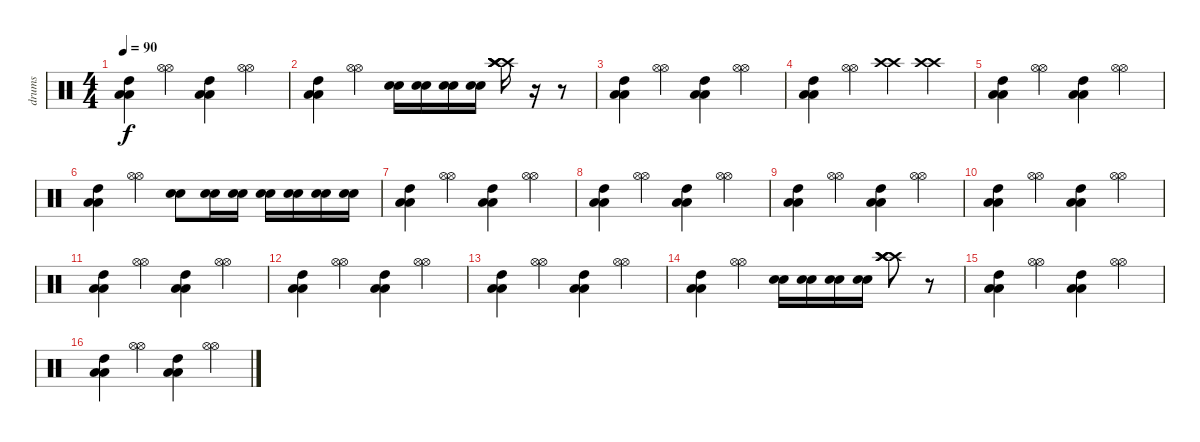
\track ("drums" "drums") {instrument percussion}
\staff {score}
\articulation defaults
\ts (4 4)
\tempo 90
\clef neutral
\ks c
("High Tom (hit)" "Low Floor Tom (hit)" "Low Floor Tom (hit)").4{dy f} ("Hi-Hat (open)" "Hi-Hat (open)").4 ("High Tom (hit)" "Low Floor Tom (hit)" "Low Floor Tom (hit)").4 ("Hi-Hat (open)" "Hi-Hat (open)").4 |
("High Tom (hit)" "Low Floor Tom (hit)" "Low Floor Tom (hit)").4 ("Hi-Hat (open)" "Hi-Hat (open)").4 ("Electric Snare (hit)" "Electric Snare (hit)").16 ("Electric Snare (hit)" "Electric Snare (hit)").16 ("Electric Snare (hit)" "Electric Snare (hit)").16 ("Electric Snare (hit)" "Electric Snare (hit)").16 ("Crash high (hit)" "Crash high (hit)" "Crash high (hit)" "Crash high (hit)").16 r.16 r.8 |
("High Tom (hit)" "Low Floor Tom (hit)" "Low Floor Tom (hit)").4 ("Hi-Hat (open)" "Hi-Hat (open)").4 ("High Tom (hit)" "Low Floor Tom (hit)" "Low Floor Tom (hit)").4 ("Hi-Hat (open)" "Hi-Hat (open)").4 |
("High Tom (hit)" "Low Floor Tom (hit)" "Low Floor Tom (hit)").4 ("Hi-Hat (open)" "Hi-Hat (open)").4 ("Crash high (hit)" "Crash high (hit)").4 ("Crash high (hit)" "Crash high (hit)").4 |
("High Tom (hit)" "Low Floor Tom (hit)" "Low Floor Tom (hit)").4 ("Hi-Hat (open)" "Hi-Hat (open)").4 ("High Tom (hit)" "Low Floor Tom (hit)" "Low Floor Tom (hit)").4 ("Hi-Hat (open)" "Hi-Hat (open)").4 |
("High Tom (hit)" "Low Floor Tom (hit)" "Low Floor Tom (hit)").4 ("Hi-Hat (open)" "Hi-Hat (open)").4 ("Electric Snare (hit)" "Electric Snare (hit)").8 ("Electric Snare (hit)" "Electric Snare (hit)").16 ("Electric Snare (hit)" "Electric Snare (hit)").16 ("Electric Snare (hit)" "Electric Snare (hit)").16 ("Electric Snare (hit)" "Electric Snare (hit)").16 ("Electric Snare (hit)" "Electric Snare (hit)").16 ("Electric Snare (hit)" "Electric Snare (hit)").16 |
("High Tom (hit)" "Low Floor Tom (hit)" "Low Floor Tom (hit)").4 ("Hi-Hat (open)" "Hi-Hat (open)").4 ("High Tom (hit)" "Low Floor Tom (hit)" "Low Floor Tom (hit)").4 ("Hi-Hat (open)" "Hi-Hat (open)").4 |
("High Tom (hit)" "Low Floor Tom (hit)" "Low Floor Tom (hit)").4 ("Hi-Hat (open)" "Hi-Hat (open)").4 ("High Tom (hit)" "Low Floor Tom (hit)" "Low Floor Tom (hit)").4 ("Hi-Hat (open)" "Hi-Hat (open)").4 |
("High Tom (hit)" "Low Floor Tom (hit)" "Low Floor Tom (hit)").4 ("Hi-Hat (open)" "Hi-Hat (open)").4 ("High Tom (hit)" "Low Floor Tom (hit)" "Low Floor Tom (hit)").4 ("Hi-Hat (open)" "Hi-Hat (open)").4 |
("High Tom (hit)" "Low Floor Tom (hit)" "Low Floor Tom (hit)").4 ("Hi-Hat (open)" "Hi-Hat (open)").4 ("High Tom (hit)" "Low Floor Tom (hit)" "Low Floor Tom (hit)").4 ("Hi-Hat (open)" "Hi-Hat (open)").4 |
("High Tom (hit)" "Low Floor Tom (hit)" "Low Floor Tom (hit)").4 ("Hi-Hat (open)" "Hi-Hat (open)").4 ("High Tom (hit)" "Low Floor Tom (hit)" "Low Floor Tom (hit)").4 ("Hi-Hat (open)" "Hi-Hat (open)").4 |
("High Tom (hit)" "Low Floor Tom (hit)" "Low Floor Tom (hit)").4 ("Hi-Hat (open)" "Hi-Hat (open)").4 ("High Tom (hit)" "Low Floor Tom (hit)" "Low Floor Tom (hit)").4 ("Hi-Hat (open)" "Hi-Hat (open)").4 |
("High Tom (hit)" "Low Floor Tom (hit)" "Low Floor Tom (hit)").4 ("Hi-Hat (open)" "Hi-Hat (open)").4 ("High Tom (hit)" "Low Floor Tom (hit)" "Low Floor Tom (hit)").4 ("Hi-Hat (open)" "Hi-Hat (open)").4 |
("High Tom (hit)" "Low Floor Tom (hit)" "Low Floor Tom (hit)").4 ("Hi-Hat (open)" "Hi-Hat (open)").4 ("Electric Snare (hit)" "Electric Snare (hit)").16 ("Electric Snare (hit)" "Electric Snare (hit)").16 ("Electric Snare (hit)" "Electric Snare (hit)").16 ("Electric Snare (hit)" "Electric Snare (hit)").16 ("Crash high (hit)" "Crash high (hit)" "Crash high (hit)" "Crash high (hit)").8 r.8 |
("High Tom (hit)" "Low Floor Tom (hit)" "Low Floor Tom (hit)").4 ("Hi-Hat (open)" "Hi-Hat (open)").4 ("High Tom (hit)" "Low Floor Tom (hit)" "Low Floor Tom (hit)").4 ("Hi-Hat (open)" "Hi-Hat (open)").4 |
("High Tom (hit)" "Low Floor Tom (hit)" "Low Floor Tom (hit)").4 ("Hi-Hat (open)" "Hi-Hat (open)").4 ("High Tom (hit)" "Low Floor Tom (hit)" "Low Floor Tom (hit)").4 ("Hi-Hat (open)" "Hi-Hat (open)").4
